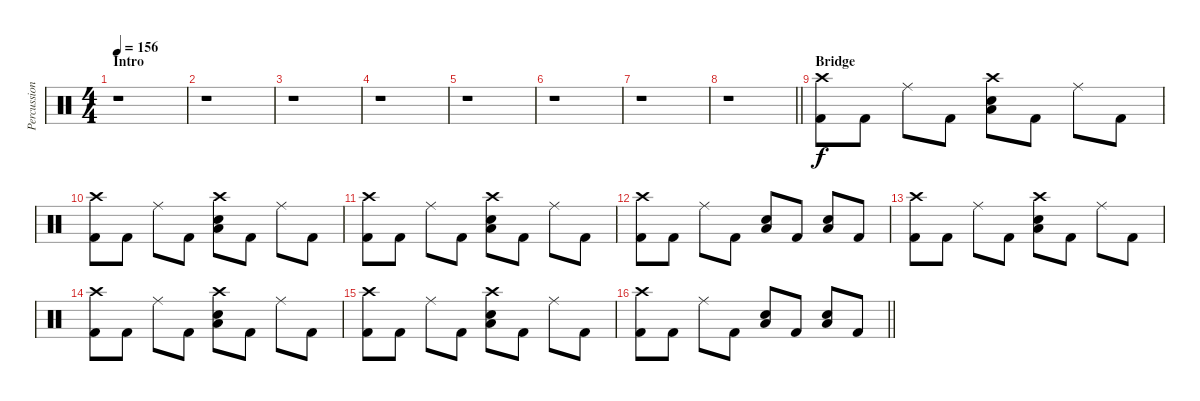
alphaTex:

\track ("Percussion" "Percussion") {instrument percussion}
\staff {score}
\articulation defaults
\ts (4 4)
\section ("" "Intro")
\tempo 156
\clef neutral
\ks c
r.1{dy f} |
r.1 |
r.1 |
r.1 |
r.1 |
r.1 |
r.1 |
\barLineRight lightlight
r.1 |
\section ("" "Bridge")
("Crash high (hit)" "Kick (hit) 2").8 "Kick (hit) 2".8 "Ride (middle)".8 "Kick (hit) 2".8 ("Crash high (hit)" "Low Tom (hit)" "Electric Snare (hit)").8 "Kick (hit) 2".8 "Ride (middle)".8 "Kick (hit) 2".8 |
("Crash high (hit)" "Kick (hit) 2").8 "Kick (hit) 2".8 "Ride (middle)".8 "Kick (hit) 2".8 ("Crash high (hit)" "Low Tom (hit)" "Electric Snare (hit)").8 "Kick (hit) 2".8 "Ride (middle)".8 "Kick (hit) 2".8 |
("Crash high (hit)" "Kick (hit) 2").8 "Kick (hit) 2".8 "Ride (middle)".8 "Kick (hit) 2".8 ("Crash high (hit)" "Low Tom (hit)" "Electric Snare (hit)").8 "Kick (hit) 2".8 "Ride (middle)".8 "Kick (hit) 2".8 |
("Crash high (hit)" "Kick (hit) 2").8 "Kick (hit) 2".8 "Ride (middle)".8 "Kick (hit) 2".8 ("Low Tom (hit)" "Electric Snare (hit)").8 "Kick (hit) 2".8 ("Low Tom (hit)" "Electric Snare (hit)").8 "Kick (hit) 2".8 |
("Crash high (hit)" "Kick (hit) 2").8 "Kick (hit) 2".8 "Ride (middle)".8 "Kick (hit) 2".8 ("Crash high (hit)" "Low Tom (hit)" "Electric Snare (hit)").8 "Kick (hit) 2".8 "Ride (middle)".8 "Kick (hit) 2".8 |
("Crash high (hit)" "Kick (hit) 2").8 "Kick (hit) 2".8 "Ride (middle)".8 "Kick (hit) 2".8 ("Crash high (hit)" "Low Tom (hit)" "Electric Snare (hit)").8 "Kick (hit) 2".8 "Ride (middle)".8 "Kick (hit) 2".8 |
("Crash high (hit)" "Kick (hit) 2").8 "Kick (hit) 2".8 "Ride (middle)".8 "Kick (hit) 2".8 ("Crash high (hit)" "Low Tom (hit)" "Electric Snare (hit)").8 "Kick (hit) 2".8 "Ride (middle)".8 "Kick (hit) 2".8 |
\barLineRight lightlight
("Crash high (hit)" "Kick (hit) 2").8 "Kick (hit) 2".8 "Ride (middle)".8 "Kick (hit) 2".8 ("Low Tom (hit)" "Electric Snare (hit)").8 "Kick (hit) 2".8 ("Low Tom (hit)" "Electric Snare (hit)").8 "Kick (hit) 2".8
